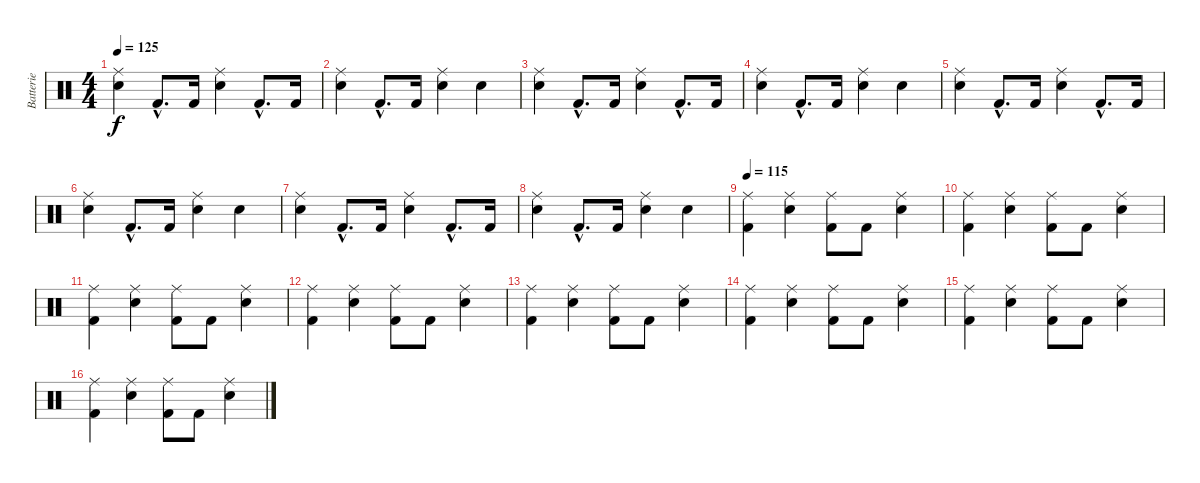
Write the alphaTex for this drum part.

\track ("Batterie" "Batterie") {instrument percussion}
\staff {score}
\articulation defaults
\ts (4 4)
\section ("" "")
\tempo 125
\clef neutral
\ks c
("Snare (hit) 2" "Ride (middle)").4{dy f} "Kick (hit) 2"{hac}.8{d} "Kick (hit) 2".16 ("Snare (hit) 2" "Ride (middle)").4 "Kick (hit) 2"{hac}.8{d} "Kick (hit) 2".16 |
("Snare (hit) 2" "Ride (middle)").4 "Kick (hit) 2"{hac}.8{d} "Kick (hit) 2".16 ("Snare (hit) 2" "Ride (middle)").4 "Snare (hit) 2".4 |
("Snare (hit) 2" "Ride (middle)").4 "Kick (hit) 2"{hac}.8{d} "Kick (hit) 2".16 ("Snare (hit) 2" "Ride (middle)").4 "Kick (hit) 2"{hac}.8{d} "Kick (hit) 2".16 |
("Snare (hit) 2" "Ride (middle)").4 "Kick (hit) 2"{hac}.8{d} "Kick (hit) 2".16 ("Snare (hit) 2" "Ride (middle)").4 "Snare (hit) 2".4 |
("Snare (hit) 2" "Ride (middle)").4 "Kick (hit) 2"{hac}.8{d} "Kick (hit) 2".16 ("Snare (hit) 2" "Ride (middle)").4 "Kick (hit) 2"{hac}.8{d} "Kick (hit) 2".16 |
("Snare (hit) 2" "Ride (middle)").4 "Kick (hit) 2"{hac}.8{d} "Kick (hit) 2".16 ("Snare (hit) 2" "Ride (middle)").4 "Snare (hit) 2".4 |
("Snare (hit) 2" "Ride (middle)").4 "Kick (hit) 2"{hac}.8{d} "Kick (hit) 2".16 ("Snare (hit) 2" "Ride (middle)").4 "Kick (hit) 2"{hac}.8{d} "Kick (hit) 2".16 |
("Snare (hit) 2" "Ride (middle)").4 "Kick (hit) 2"{hac}.8{d} "Kick (hit) 2".16 ("Snare (hit) 2" "Ride (middle)").4 "Snare (hit) 2".4 |
\section ("" "")
\tempo 115
("Kick (hit) 2" "Ride (middle)").4 ("Snare (hit) 2" "Ride (middle)").4 ("Kick (hit) 2" "Ride (middle)").8 "Kick (hit) 2".8 ("Snare (hit) 2" "Ride (middle)").4 |
("Kick (hit) 2" "Ride (middle)").4 ("Snare (hit) 2" "Ride (middle)").4 ("Kick (hit) 2" "Ride (middle)").8 "Kick (hit) 2".8 ("Snare (hit) 2" "Ride (middle)").4 |
("Kick (hit) 2" "Ride (middle)").4 ("Snare (hit) 2" "Ride (middle)").4 ("Kick (hit) 2" "Ride (middle)").8 "Kick (hit) 2".8 ("Snare (hit) 2" "Ride (middle)").4 |
("Kick (hit) 2" "Ride (middle)").4 ("Snare (hit) 2" "Ride (middle)").4 ("Kick (hit) 2" "Ride (middle)").8 "Kick (hit) 2".8 ("Snare (hit) 2" "Ride (middle)").4 |
("Kick (hit) 2" "Ride (middle)").4 ("Snare (hit) 2" "Ride (middle)").4 ("Kick (hit) 2" "Ride (middle)").8 "Kick (hit) 2".8 ("Snare (hit) 2" "Ride (middle)").4 |
("Kick (hit) 2" "Ride (middle)").4 ("Snare (hit) 2" "Ride (middle)").4 ("Kick (hit) 2" "Ride (middle)").8 "Kick (hit) 2".8 ("Snare (hit) 2" "Ride (middle)").4 |
("Kick (hit) 2" "Ride (middle)").4 ("Snare (hit) 2" "Ride (middle)").4 ("Kick (hit) 2" "Ride (middle)").8 "Kick (hit) 2".8 ("Snare (hit) 2" "Ride (middle)").4 |
("Kick (hit) 2" "Ride (middle)").4 ("Snare (hit) 2" "Ride (middle)").4 ("Kick (hit) 2" "Ride (middle)").8 "Kick (hit) 2".8 ("Snare (hit) 2" "Ride (middle)").4
